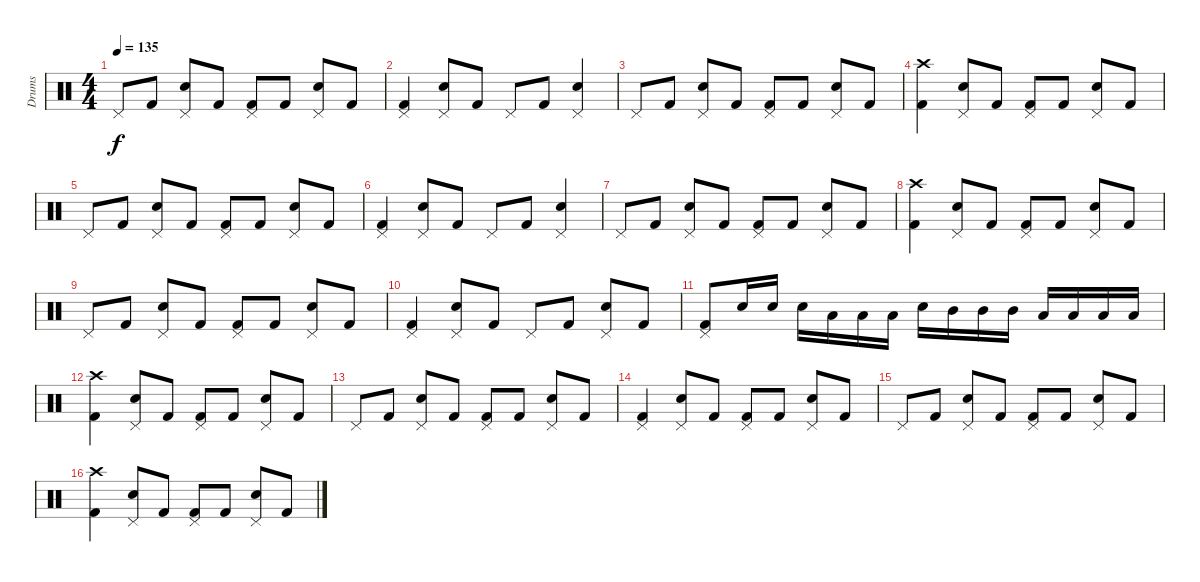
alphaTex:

\track ("Drums" "Drums") {instrument percussion}
\staff {score}
\articulation defaults
\ts (4 4)
\tempo 135
\clef neutral
\ks c "Pedal Hi-Hat (hit)".8{dy f} "Kick (hit) 2".8
("Pedal Hi-Hat (hit)" "Electric Snare (hit)").8 "Kick (hit) 2".8 ("Pedal Hi-Hat (hit)" "Kick (hit) 2").8 "Kick (hit) 2".8 ("Pedal Hi-Hat (hit)" "Electric Snare (hit)").8 "Kick (hit) 2".8 |
("Pedal Hi-Hat (hit)" "Kick (hit) 2").4 ("Pedal Hi-Hat (hit)" "Electric Snare (hit)").8 "Kick (hit) 2".8 "Pedal Hi-Hat (hit)".8 "Kick (hit) 2".8 ("Pedal Hi-Hat (hit)" "Electric Snare (hit)").4 |
"Pedal Hi-Hat (hit)".8 "Kick (hit) 2".8 ("Pedal Hi-Hat (hit)" "Electric Snare (hit)").8 "Kick (hit) 2".8 ("Pedal Hi-Hat (hit)" "Kick (hit) 2").8 "Kick (hit) 2".8 ("Pedal Hi-Hat (hit)" "Electric Snare (hit)").8 "Kick (hit) 2".8 |
("Crash high (hit)" "Kick (hit) 2").4 ("Pedal Hi-Hat (hit)" "Electric Snare (hit)").8 "Kick (hit) 2".8 ("Pedal Hi-Hat (hit)" "Kick (hit) 2").8 "Kick (hit) 2".8 ("Pedal Hi-Hat (hit)" "Electric Snare (hit)").8 "Kick (hit) 2".8 |
"Pedal Hi-Hat (hit)".8 "Kick (hit) 2".8 ("Pedal Hi-Hat (hit)" "Electric Snare (hit)").8 "Kick (hit) 2".8 ("Pedal Hi-Hat (hit)" "Kick (hit) 2").8 "Kick (hit) 2".8 ("Pedal Hi-Hat (hit)" "Electric Snare (hit)").8 "Kick (hit) 2".8 |
("Pedal Hi-Hat (hit)" "Kick (hit) 2").4 ("Pedal Hi-Hat (hit)" "Electric Snare (hit)").8 "Kick (hit) 2".8 "Pedal Hi-Hat (hit)".8 "Kick (hit) 2".8 ("Pedal Hi-Hat (hit)" "Electric Snare (hit)").4 |
"Pedal Hi-Hat (hit)".8 "Kick (hit) 2".8 ("Pedal Hi-Hat (hit)" "Electric Snare (hit)").8 "Kick (hit) 2".8 ("Pedal Hi-Hat (hit)" "Kick (hit) 2").8 "Kick (hit) 2".8 ("Pedal Hi-Hat (hit)" "Electric Snare (hit)").8 "Kick (hit) 2".8 |
("Crash high (hit)" "Kick (hit) 2").4 ("Pedal Hi-Hat (hit)" "Electric Snare (hit)").8 "Kick (hit) 2".8 ("Pedal Hi-Hat (hit)" "Kick (hit) 2").8 "Kick (hit) 2".8 ("Pedal Hi-Hat (hit)" "Electric Snare (hit)").8 "Kick (hit) 2".8 |
"Pedal Hi-Hat (hit)".8 "Kick (hit) 2".8 ("Pedal Hi-Hat (hit)" "Electric Snare (hit)").8 "Kick (hit) 2".8 ("Pedal Hi-Hat (hit)" "Kick (hit) 2").8 "Kick (hit) 2".8 ("Pedal Hi-Hat (hit)" "Electric Snare (hit)").8 "Kick (hit) 2".8 |
("Pedal Hi-Hat (hit)" "Kick (hit) 2").4 ("Pedal Hi-Hat (hit)" "Electric Snare (hit)").8 "Kick (hit) 2".8 "Pedal Hi-Hat (hit)".8 "Kick (hit) 2".8 ("Pedal Hi-Hat (hit)" "Electric Snare (hit)").8 "Kick (hit) 2".8 |
("Pedal Hi-Hat (hit)" "Kick (hit) 2").8 "Electric Snare (hit)".16 "Electric Snare (hit)".16 "Electric Snare (hit)".16 "Low Tom (hit)".16 "Low Tom (hit)".16 "Low Tom (hit)".16 "Electric Snare (hit)".16 "Mid Tom (hit)".16 "Mid Tom (hit)".16 "Mid Tom (hit)".16 "Low Floor Tom (hit)".16 "Low Floor Tom (hit)".16 "Low Floor Tom (hit)".16 "Low Floor Tom (hit)".16 |
("Crash high (hit)" "Kick (hit) 2").4 ("Pedal Hi-Hat (hit)" "Electric Snare (hit)").8 "Kick (hit) 2".8 ("Pedal Hi-Hat (hit)" "Kick (hit) 2").8 "Kick (hit) 2".8 ("Pedal Hi-Hat (hit)" "Electric Snare (hit)").8 "Kick (hit) 2".8 |
"Pedal Hi-Hat (hit)".8 "Kick (hit) 2".8 ("Pedal Hi-Hat (hit)" "Electric Snare (hit)").8 "Kick (hit) 2".8 ("Pedal Hi-Hat (hit)" "Kick (hit) 2").8 "Kick (hit) 2".8 ("Pedal Hi-Hat (hit)" "Electric Snare (hit)").8 "Kick (hit) 2".8 |
("Pedal Hi-Hat (hit)" "Kick (hit) 2").4 ("Pedal Hi-Hat (hit)" "Electric Snare (hit)").8 "Kick (hit) 2".8 ("Pedal Hi-Hat (hit)" "Kick (hit) 2").8 "Kick (hit) 2".8 ("Pedal Hi-Hat (hit)" "Electric Snare (hit)").8 "Kick (hit) 2".8 |
"Pedal Hi-Hat (hit)".8 "Kick (hit) 2".8 ("Pedal Hi-Hat (hit)" "Electric Snare (hit)").8 "Kick (hit) 2".8 ("Pedal Hi-Hat (hit)" "Kick (hit) 2").8 "Kick (hit) 2".8 ("Pedal Hi-Hat (hit)" "Electric Snare (hit)").8 "Kick (hit) 2".8 |
("Crash high (hit)" "Kick (hit) 2").4 ("Pedal Hi-Hat (hit)" "Electric Snare (hit)").8 "Kick (hit) 2".8 ("Pedal Hi-Hat (hit)" "Kick (hit) 2").8 "Kick (hit) 2".8 ("Pedal Hi-Hat (hit)" "Electric Snare (hit)").8 "Kick (hit) 2".8
